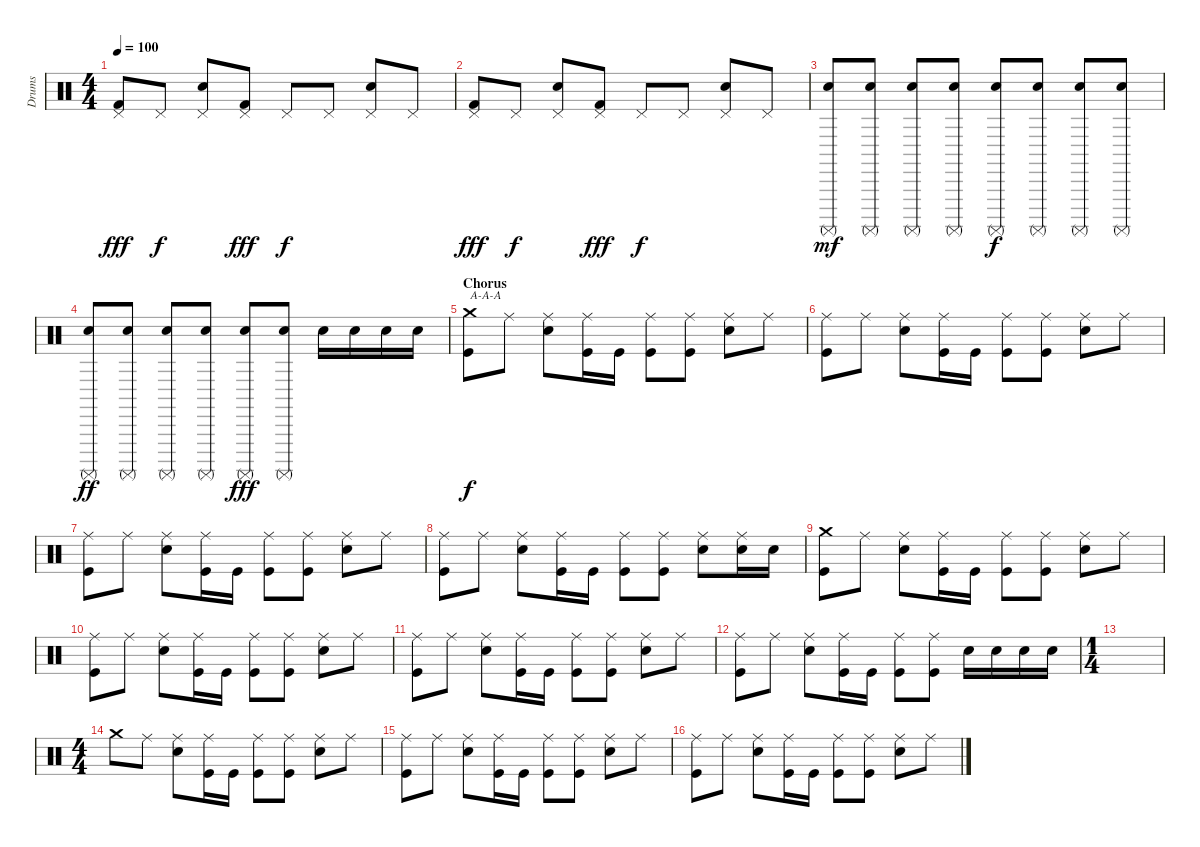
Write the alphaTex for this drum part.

\track ("Drums" "Drums") {instrument percussion}
\staff {score}
\articulation defaults
\ts (4 4)
\tempo 100
\clef neutral
\ks c
("Kick (hit) 2" "Pedal Hi-Hat (hit)").8{dy fff} "Pedal Hi-Hat (hit)".8{dy f} ("Electric Snare (hit)" "Pedal Hi-Hat (hit)").8 ("Kick (hit) 2" "Pedal Hi-Hat (hit)").8{dy fff} "Pedal Hi-Hat (hit)".8{dy f} "Pedal Hi-Hat (hit)".8 ("Electric Snare (hit)" "Pedal Hi-Hat (hit)").8 "Pedal Hi-Hat (hit)".8 |
("Kick (hit) 2" "Pedal Hi-Hat (hit)").8{dy fff} "Pedal Hi-Hat (hit)".8{dy f} ("Electric Snare (hit)" "Pedal Hi-Hat (hit)").8 ("Kick (hit) 2" "Pedal Hi-Hat (hit)").8{dy fff} "Pedal Hi-Hat (hit)".8{dy f} "Pedal Hi-Hat (hit)".8 ("Electric Snare (hit)" "Pedal Hi-Hat (hit)").8 "Pedal Hi-Hat (hit)".8 |
("Electric Snare (hit)" "Surdo (mute)").8{dy mf} ("Electric Snare (hit)" "Surdo (mute)").8 ("Electric Snare (hit)" "Surdo (mute)").8 ("Electric Snare (hit)" "Surdo (mute)").8 ("Electric Snare (hit)" "Surdo (mute)").8{dy f} ("Electric Snare (hit)" "Surdo (mute)").8 ("Electric Snare (hit)" "Surdo (mute)").8 ("Electric Snare (hit)" "Surdo (mute)").8 |
("Electric Snare (hit)" "Surdo (mute)").8{dy ff} ("Electric Snare (hit)" "Surdo (mute)").8 ("Electric Snare (hit)" "Surdo (mute)").8 ("Electric Snare (hit)" "Surdo (mute)").8 ("Electric Snare (hit)" "Surdo (mute)").8{dy fff} ("Electric Snare (hit)" "Surdo (mute)").8 "Electric Snare (hit)".16 "Electric Snare (hit)".16 "Electric Snare (hit)".16 "Electric Snare (hit)".16 |
\section ("" "Chorus")
("Kick (hit)" "Crash medium (hit)").8{txt "A-A-A" dy f} "Ride (middle)".8 ("Electric Snare (hit)" "Ride (middle)").8 ("Kick (hit)" "Ride (middle)").16 "Kick (hit)".16 ("Kick (hit)" "Ride (middle)").8 ("Kick (hit)" "Ride (middle)").8 ("Electric Snare (hit)" "Ride (middle)").8 "Ride (middle)".8 |
("Kick (hit)" "Ride (middle)").8 "Ride (middle)".8 ("Electric Snare (hit)" "Ride (middle)").8 ("Kick (hit)" "Ride (middle)").16 "Kick (hit)".16 ("Kick (hit)" "Ride (middle)").8 ("Kick (hit)" "Ride (middle)").8 ("Electric Snare (hit)" "Ride (middle)").8 "Ride (middle)".8 |
("Kick (hit)" "Ride (middle)").8 "Ride (middle)".8 ("Electric Snare (hit)" "Ride (middle)").8 ("Kick (hit)" "Ride (middle)").16 "Kick (hit)".16 ("Kick (hit)" "Ride (middle)").8 ("Kick (hit)" "Ride (middle)").8 ("Electric Snare (hit)" "Ride (middle)").8 "Ride (middle)".8 |
("Kick (hit)" "Ride (middle)").8 "Ride (middle)".8 ("Electric Snare (hit)" "Ride (middle)").8 ("Kick (hit)" "Ride (middle)").16 "Kick (hit)".16 ("Kick (hit)" "Ride (middle)").8 ("Kick (hit)" "Ride (middle)").8 ("Electric Snare (hit)" "Ride (middle)").8 ("Electric Snare (hit)" "Ride (middle)").16 "Electric Snare (hit)".16 |
("Kick (hit)" "Crash medium (hit)").8 "Ride (middle)".8 ("Electric Snare (hit)" "Ride (middle)").8 ("Kick (hit)" "Ride (middle)").16 "Kick (hit)".16 ("Kick (hit)" "Ride (middle)").8 ("Kick (hit)" "Ride (middle)").8 ("Electric Snare (hit)" "Ride (middle)").8 "Ride (middle)".8 |
("Kick (hit)" "Ride (middle)").8 "Ride (middle)".8 ("Electric Snare (hit)" "Ride (middle)").8 ("Kick (hit)" "Ride (middle)").16 "Kick (hit)".16 ("Kick (hit)" "Ride (middle)").8 ("Kick (hit)" "Ride (middle)").8 ("Electric Snare (hit)" "Ride (middle)").8 "Ride (middle)".8 |
("Kick (hit)" "Ride (middle)").8 "Ride (middle)".8 ("Electric Snare (hit)" "Ride (middle)").8 ("Kick (hit)" "Ride (middle)").16 "Kick (hit)".16 ("Kick (hit)" "Ride (middle)").8 ("Kick (hit)" "Ride (middle)").8 ("Electric Snare (hit)" "Ride (middle)").8 "Ride (middle)".8 |
("Kick (hit)" "Ride (middle)").8 "Ride (middle)".8 ("Electric Snare (hit)" "Ride (middle)").8 ("Kick (hit)" "Ride (middle)").16 "Kick (hit)".16 ("Kick (hit)" "Ride (middle)").8 ("Kick (hit)" "Ride (middle)").8 "Electric Snare (hit)".16 "Electric Snare (hit)".16 "Electric Snare (hit)".16 "Electric Snare (hit)".16 |
\ts (1 4)
|
\ts (4 4)
"Crash medium (hit)".8 "Ride (middle)".8 ("Electric Snare (hit)" "Ride (middle)").8 ("Kick (hit)" "Ride (middle)").16 "Kick (hit)".16 ("Kick (hit)" "Ride (middle)").8 ("Kick (hit)" "Ride (middle)").8 ("Electric Snare (hit)" "Ride (middle)").8 "Ride (middle)".8 |
("Kick (hit)" "Ride (middle)").8 "Ride (middle)".8 ("Electric Snare (hit)" "Ride (middle)").8 ("Kick (hit)" "Ride (middle)").16 "Kick (hit)".16 ("Kick (hit)" "Ride (middle)").8 ("Kick (hit)" "Ride (middle)").8 ("Electric Snare (hit)" "Ride (middle)").8 "Ride (middle)".8 |
("Kick (hit)" "Ride (middle)").8 "Ride (middle)".8 ("Electric Snare (hit)" "Ride (middle)").8 ("Kick (hit)" "Ride (middle)").16 "Kick (hit)".16 ("Kick (hit)" "Ride (middle)").8 ("Kick (hit)" "Ride (middle)").8 ("Electric Snare (hit)" "Ride (middle)").8 "Ride (middle)".8
